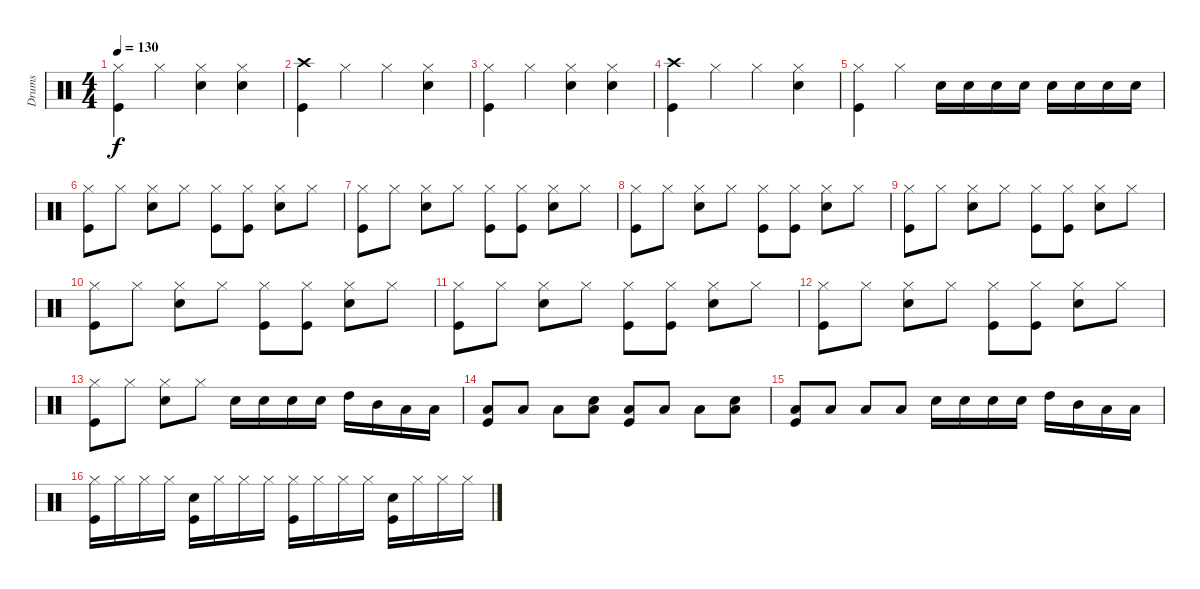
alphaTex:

\track ("Drums" "Drums") {instrument percussion}
\staff {score}
\articulation defaults
\ts (4 4)
\tempo 130
\clef neutral
\ks c
("Hi-Hat (closed)" "Kick (hit)").4{dy f} "Hi-Hat (closed)".4 ("Hi-Hat (closed)" "Snare (hit) 2").4 ("Hi-Hat (closed)" "Snare (hit) 2").4 |
("Crash high (hit)" "Kick (hit)").4 "Hi-Hat (closed)".4 "Hi-Hat (closed)".4 ("Hi-Hat (closed)" "Snare (hit) 2").4 |
("Hi-Hat (closed)" "Kick (hit)").4 "Hi-Hat (closed)".4 ("Hi-Hat (closed)" "Snare (hit) 2").4 ("Hi-Hat (closed)" "Snare (hit) 2").4 |
("Crash high (hit)" "Kick (hit)").4 "Hi-Hat (closed)".4 "Hi-Hat (closed)".4 ("Hi-Hat (closed)" "Snare (hit) 2").4 |
("Hi-Hat (closed)" "Kick (hit)").4 "Hi-Hat (closed)".4 "Snare (hit) 2".16 "Snare (hit) 2".16 "Snare (hit) 2".16 "Snare (hit) 2".16 "Snare (hit) 2".16 "Snare (hit) 2".16 "Snare (hit) 2".16 "Snare (hit) 2".16 |
("Hi-Hat (closed)" "Kick (hit)").8 "Hi-Hat (closed)".8 ("Hi-Hat (closed)" "Snare (hit) 2").8 "Hi-Hat (closed)".8 ("Hi-Hat (closed)" "Kick (hit)").8 ("Hi-Hat (closed)" "Kick (hit)").8 ("Hi-Hat (closed)" "Snare (hit) 2").8 "Hi-Hat (closed)".8 |
("Hi-Hat (closed)" "Kick (hit)").8 "Hi-Hat (closed)".8 ("Hi-Hat (closed)" "Snare (hit) 2").8 "Hi-Hat (closed)".8 ("Hi-Hat (closed)" "Kick (hit)").8 ("Hi-Hat (closed)" "Kick (hit)").8 ("Hi-Hat (closed)" "Snare (hit) 2").8 "Hi-Hat (closed)".8 |
("Hi-Hat (closed)" "Kick (hit)").8 "Hi-Hat (closed)".8 ("Hi-Hat (closed)" "Snare (hit) 2").8 "Hi-Hat (closed)".8 ("Hi-Hat (closed)" "Kick (hit)").8 ("Hi-Hat (closed)" "Kick (hit)").8 ("Hi-Hat (closed)" "Snare (hit) 2").8 "Hi-Hat (closed)".8 |
("Hi-Hat (closed)" "Kick (hit)").8 "Hi-Hat (closed)".8 ("Hi-Hat (closed)" "Snare (hit) 2").8 "Hi-Hat (closed)".8 ("Hi-Hat (closed)" "Kick (hit)").8 ("Hi-Hat (closed)" "Kick (hit)").8 ("Hi-Hat (closed)" "Snare (hit) 2").8 "Hi-Hat (closed)".8 |
("Hi-Hat (closed)" "Kick (hit)").8 "Hi-Hat (closed)".8 ("Hi-Hat (closed)" "Snare (hit) 2").8 "Hi-Hat (closed)".8 ("Hi-Hat (closed)" "Kick (hit)").8 ("Hi-Hat (closed)" "Kick (hit)").8 ("Hi-Hat (closed)" "Snare (hit) 2").8 "Hi-Hat (closed)".8 |
("Hi-Hat (closed)" "Kick (hit)").8 "Hi-Hat (closed)".8 ("Hi-Hat (closed)" "Snare (hit) 2").8 "Hi-Hat (closed)".8 ("Hi-Hat (closed)" "Kick (hit)").8 ("Hi-Hat (closed)" "Kick (hit)").8 ("Hi-Hat (closed)" "Snare (hit) 2").8 "Hi-Hat (closed)".8 |
("Hi-Hat (closed)" "Kick (hit)").8 "Hi-Hat (closed)".8 ("Hi-Hat (closed)" "Snare (hit) 2").8 "Hi-Hat (closed)".8 ("Hi-Hat (closed)" "Kick (hit)").8 ("Hi-Hat (closed)" "Kick (hit)").8 ("Hi-Hat (closed)" "Snare (hit) 2").8 "Hi-Hat (closed)".8 |
("Hi-Hat (closed)" "Kick (hit)").8 "Hi-Hat (closed)".8 ("Hi-Hat (closed)" "Snare (hit) 2").8 "Hi-Hat (closed)".8 "Snare (hit) 2".16 "Snare (hit) 2".16 "Snare (hit) 2".16 "Snare (hit) 2".16 "High Tom (hit)".16 "Mid Tom (hit)".16 "Low Tom (hit)".16 "Low Tom (hit)".16 |
("Low Tom (hit)" "Kick (hit)").8 "Low Tom (hit)".8 "Low Tom (hit)".8 ("Low Tom (hit)" "Snare (hit) 2").8 ("Low Tom (hit)" "Kick (hit)").8 "Low Tom (hit)".8 "Low Tom (hit)".8 ("Low Tom (hit)" "Snare (hit) 2").8 |
("Low Tom (hit)" "Kick (hit)").8 "Low Tom (hit)".8 "Low Tom (hit)".8 "Low Tom (hit)".8 "Snare (hit) 2".16 "Snare (hit) 2".16 "Snare (hit) 2".16 "Snare (hit) 2".16 "High Tom (hit)".16 "Mid Tom (hit)".16 "Low Tom (hit)".16 "Low Tom (hit)".16 |
("Hi-Hat (closed)" "Kick (hit)").16 "Hi-Hat (closed)".16 "Hi-Hat (closed)".16 "Hi-Hat (closed)".16 ("Snare (hit) 2" "Kick (hit)").16 "Hi-Hat (closed)".16 "Hi-Hat (closed)".16 "Hi-Hat (closed)".16 ("Hi-Hat (closed)" "Kick (hit)").16 "Hi-Hat (closed)".16 "Hi-Hat (closed)".16 "Hi-Hat (closed)".16 ("Snare (hit) 2" "Kick (hit)").16 "Hi-Hat (closed)".16 "Hi-Hat (closed)".16 "Hi-Hat (closed)".16
